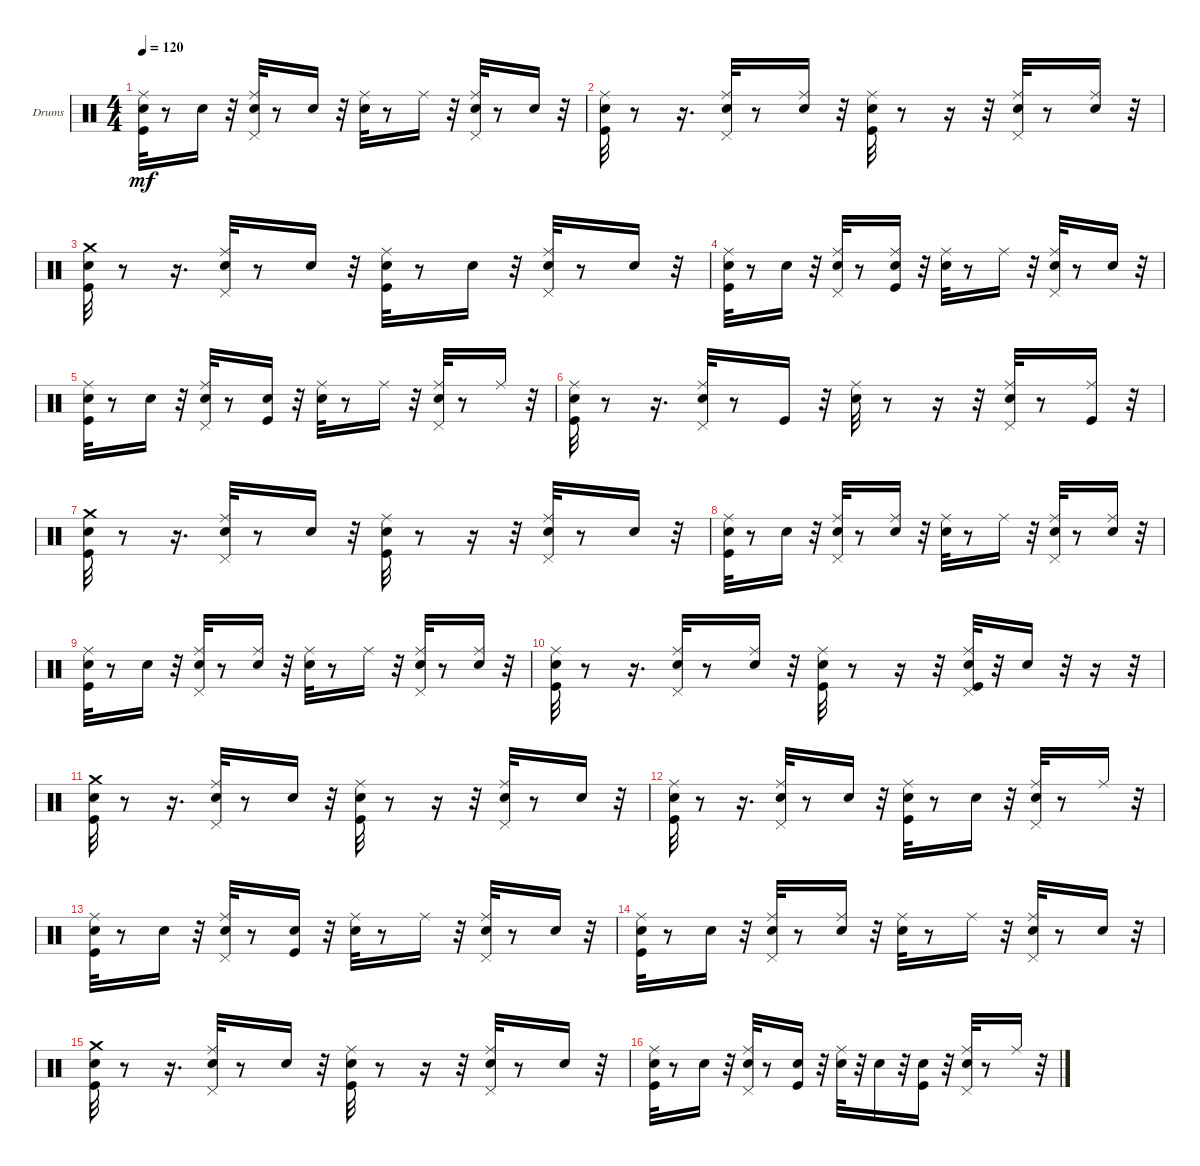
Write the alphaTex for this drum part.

\bracketExtendMode groupsimilarinstruments
\firstSystemTrackNameOrientation horizontal
\otherSystemsTrackNameOrientation horizontal
\track ("Drums   (BB)" "Drums") {instrument percussion}
\staff {score}
\articulation defaults
\ts (4 4)
\tempo 120
\clef neutral
\ks c
("Kick (hit)" "Snare (hit) 2" "Ride (middle)").32{dy mf} r.8 "Snare (hit) 2".16 r.32 ("Snare (hit) 2" "Ride (middle)" "Pedal Hi-Hat (hit)").32 r.8 "Snare (hit) 2".16 r.32 ("Snare (hit) 2" "Ride (middle)").32 r.8 "Ride (middle)".16 r.32 ("Snare (hit) 2" "Ride (middle)" "Pedal Hi-Hat (hit)").32 r.8 "Snare (hit) 2".16 r.32 |
("Kick (hit)" "Snare (hit) 2" "Ride (middle)").32 r.8 r.16{d} ("Snare (hit) 2" "Ride (middle)" "Pedal Hi-Hat (hit)").32 r.8 ("Snare (hit) 2" "Ride (middle)").16 r.32 ("Kick (hit)" "Snare (hit) 2" "Ride (middle)").32 r.8 r.16 r.32 ("Snare (hit) 2" "Ride (middle)" "Pedal Hi-Hat (hit)").32 r.8 ("Snare (hit) 2" "Ride (middle)").16 r.32 |
("Kick (hit)" "Snare (hit) 2" "Crash medium (hit)").32 r.8 r.16{d} ("Snare (hit) 2" "Ride (middle)" "Pedal Hi-Hat (hit)").32 r.8 "Snare (hit) 2".16 r.32 ("Kick (hit)" "Snare (hit) 2" "Ride (middle)").32 r.8 "Snare (hit) 2".16 r.32 ("Snare (hit) 2" "Ride (middle)" "Pedal Hi-Hat (hit)").32 r.8 "Snare (hit) 2".16 r.32 |
("Kick (hit)" "Snare (hit) 2" "Ride (middle)").32 r.8 "Snare (hit) 2".16 r.32 ("Snare (hit) 2" "Ride (middle)" "Pedal Hi-Hat (hit)").32 r.8 ("Kick (hit)" "Snare (hit) 2" "Ride (middle)").16 r.32 ("Snare (hit) 2" "Ride (middle)").32 r.8 "Ride (middle)".16 r.32 ("Snare (hit) 2" "Ride (middle)" "Pedal Hi-Hat (hit)").32 r.8 "Snare (hit) 2".16 r.32 |
("Kick (hit)" "Snare (hit) 2" "Ride (middle)").32 r.8 "Snare (hit) 2".16 r.32 ("Snare (hit) 2" "Ride (middle)" "Pedal Hi-Hat (hit)").32 r.8 ("Kick (hit)" "Snare (hit) 2").16 r.32 ("Snare (hit) 2" "Ride (middle)").32 r.8 "Ride (middle)".16 r.32 ("Snare (hit) 2" "Ride (middle)" "Pedal Hi-Hat (hit)").32 r.8 "Ride (middle)".16 r.32 |
("Kick (hit)" "Snare (hit) 2" "Ride (middle)").32 r.8 r.16{d} ("Snare (hit) 2" "Ride (middle)" "Pedal Hi-Hat (hit)").32 r.8 "Kick (hit)".16 r.32 ("Snare (hit) 2" "Ride (middle)").32 r.8 r.16 r.32 ("Snare (hit) 2" "Ride (middle)" "Pedal Hi-Hat (hit)").32 r.8 ("Kick (hit)" "Ride (middle)").16 r.32 |
("Kick (hit)" "Snare (hit) 2" "Crash medium (hit)").32 r.8 r.16{d} ("Snare (hit) 2" "Ride (middle)" "Pedal Hi-Hat (hit)").32 r.8 "Snare (hit) 2".16 r.32 ("Kick (hit)" "Snare (hit) 2" "Ride (middle)").32 r.8 r.16 r.32 ("Snare (hit) 2" "Ride (middle)" "Pedal Hi-Hat (hit)").32 r.8 "Snare (hit) 2".16 r.32 |
("Kick (hit)" "Snare (hit) 2" "Ride (middle)").32 r.8 "Snare (hit) 2".16 r.32 ("Snare (hit) 2" "Ride (middle)" "Pedal Hi-Hat (hit)").32 r.8 ("Snare (hit) 2" "Ride (middle)").16 r.32 ("Snare (hit) 2" "Ride (middle)").32 r.8 "Ride (middle)".16 r.32 ("Snare (hit) 2" "Ride (middle)" "Pedal Hi-Hat (hit)").32 r.8 ("Snare (hit) 2" "Ride (middle)").16 r.32 |
("Kick (hit)" "Snare (hit) 2" "Ride (middle)").32 r.8 "Snare (hit) 2".16 r.32 ("Snare (hit) 2" "Ride (middle)" "Pedal Hi-Hat (hit)").32 r.8 ("Snare (hit) 2" "Ride (middle)").16 r.32 ("Snare (hit) 2" "Ride (middle)").32 r.8 "Ride (middle)".16 r.32 ("Snare (hit) 2" "Ride (middle)" "Pedal Hi-Hat (hit)").32 r.8 ("Snare (hit) 2" "Ride (middle)").16 r.32 |
("Kick (hit)" "Snare (hit) 2" "Ride (middle)").32 r.8 r.16{d} ("Snare (hit) 2" "Ride (middle)" "Pedal Hi-Hat (hit)").32 r.8 ("Snare (hit) 2" "Ride (middle)").16 r.32 ("Kick (hit)" "Snare (hit) 2" "Ride (middle)").32 r.8 r.16 r.32 ("Kick (hit)" "Snare (hit) 2" "Ride (middle)" "Pedal Hi-Hat (hit)").32 r.32 "Snare (hit) 2".16 r.32 r.16 r.32 |
("Kick (hit)" "Snare (hit) 2" "Crash medium (hit)").32 r.8 r.16{d} ("Snare (hit) 2" "Ride (middle)" "Pedal Hi-Hat (hit)").32 r.8 "Snare (hit) 2".16 r.32 ("Kick (hit)" "Snare (hit) 2" "Ride (middle)").32 r.8 r.16 r.32 ("Snare (hit) 2" "Ride (middle)" "Pedal Hi-Hat (hit)").32 r.8 "Snare (hit) 2".16 r.32 |
("Kick (hit)" "Snare (hit) 2" "Ride (middle)").32 r.8 r.16{d} ("Snare (hit) 2" "Ride (middle)" "Pedal Hi-Hat (hit)").32 r.8 "Snare (hit) 2".16 r.32 ("Kick (hit)" "Snare (hit) 2" "Ride (middle)").32 r.8 "Snare (hit) 2".16 r.32 ("Snare (hit) 2" "Ride (middle)" "Pedal Hi-Hat (hit)").32 r.8 "Ride (middle)".16 r.32 |
("Kick (hit)" "Snare (hit) 2" "Ride (middle)").32 r.8 "Snare (hit) 2".16 r.32 ("Snare (hit) 2" "Ride (middle)" "Pedal Hi-Hat (hit)").32 r.8 ("Kick (hit)" "Snare (hit) 2").16 r.32 ("Snare (hit) 2" "Ride (middle)").32 r.8 "Ride (middle)".16 r.32 ("Snare (hit) 2" "Ride (middle)" "Pedal Hi-Hat (hit)").32 r.8 "Snare (hit) 2".16 r.32 |
("Kick (hit)" "Snare (hit) 2" "Ride (middle)").32 r.8 "Snare (hit) 2".16 r.32 ("Snare (hit) 2" "Ride (middle)" "Pedal Hi-Hat (hit)").32 r.8 ("Snare (hit) 2" "Ride (middle)").16 r.32 ("Snare (hit) 2" "Ride (middle)").32 r.8 "Ride (middle)".16 r.32 ("Snare (hit) 2" "Ride (middle)" "Pedal Hi-Hat (hit)").32 r.8 "Snare (hit) 2".16 r.32 |
("Kick (hit)" "Snare (hit) 2" "Crash medium (hit)").32 r.8 r.16{d} ("Snare (hit) 2" "Ride (middle)" "Pedal Hi-Hat (hit)").32 r.8 "Snare (hit) 2".16 r.32 ("Kick (hit)" "Snare (hit) 2" "Ride (middle)").32 r.8 r.16 r.32 ("Snare (hit) 2" "Ride (middle)" "Pedal Hi-Hat (hit)").32 r.8 "Snare (hit) 2".16 r.32 |
("Kick (hit)" "Snare (hit) 2" "Ride (middle)").32 r.8 "Snare (hit) 2".16 r.32 ("Snare (hit) 2" "Ride (middle)" "Pedal Hi-Hat (hit)").32 r.8 ("Kick (hit)" "Snare (hit) 2").16 r.32 ("Snare (hit) 2" "Ride (middle)").32 r.32 "Snare (hit) 2".16 r.32 ("Kick (hit)" "Snare (hit) 2").16 r.32 ("Snare (hit) 2" "Ride (middle)" "Pedal Hi-Hat (hit)").32 r.8 "Ride (middle)".16 r.32
